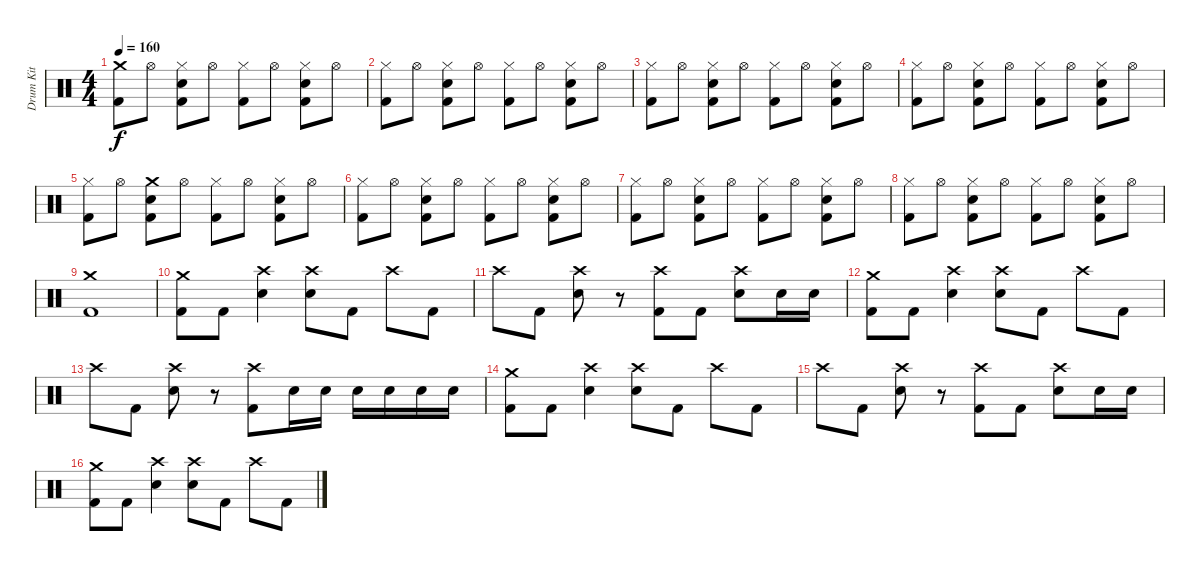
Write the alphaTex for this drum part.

\track ("Drum Kit" "Drum Kit") {instrument percussion}
\staff {score}
\articulation defaults
\ts (4 4)
\tempo 160
\clef neutral
\ks c
("Crash medium (hit)" "Kick (hit) 2").8{dy f} "Hi-Hat (open)".8 ("Hi-Hat (closed)" "Electric Snare (hit)" "Kick (hit) 2").8 "Hi-Hat (open)".8 ("Hi-Hat (closed)" "Kick (hit) 2").8 "Hi-Hat (open)".8 ("Hi-Hat (closed)" "Electric Snare (hit)" "Kick (hit) 2").8 "Hi-Hat (open)".8 |
("Hi-Hat (closed)" "Kick (hit) 2").8 "Hi-Hat (open)".8 ("Hi-Hat (closed)" "Electric Snare (hit)" "Kick (hit) 2").8 "Hi-Hat (open)".8 ("Hi-Hat (closed)" "Kick (hit) 2").8 "Hi-Hat (open)".8 ("Hi-Hat (closed)" "Electric Snare (hit)" "Kick (hit) 2").8 "Hi-Hat (open)".8 |
("Hi-Hat (closed)" "Kick (hit) 2").8 "Hi-Hat (open)".8 ("Hi-Hat (closed)" "Electric Snare (hit)" "Kick (hit) 2").8 "Hi-Hat (open)".8 ("Hi-Hat (closed)" "Kick (hit) 2").8 "Hi-Hat (open)".8 ("Hi-Hat (closed)" "Electric Snare (hit)" "Kick (hit) 2").8 "Hi-Hat (open)".8 |
("Hi-Hat (closed)" "Kick (hit) 2").8 "Hi-Hat (open)".8 ("Hi-Hat (closed)" "Electric Snare (hit)" "Kick (hit) 2").8 "Hi-Hat (open)".8 ("Hi-Hat (closed)" "Kick (hit) 2").8 "Hi-Hat (open)".8 ("Hi-Hat (closed)" "Electric Snare (hit)" "Kick (hit) 2").8 "Hi-Hat (open)".8 |
("Hi-Hat (closed)" "Kick (hit) 2").8 "Hi-Hat (open)".8 ("Crash medium (hit)" "Electric Snare (hit)" "Kick (hit) 2").8 "Hi-Hat (open)".8 ("Hi-Hat (closed)" "Kick (hit) 2").8 "Hi-Hat (open)".8 ("Hi-Hat (closed)" "Electric Snare (hit)" "Kick (hit) 2").8 "Hi-Hat (open)".8 |
("Hi-Hat (closed)" "Kick (hit) 2").8 "Hi-Hat (open)".8 ("Hi-Hat (closed)" "Electric Snare (hit)" "Kick (hit) 2").8 "Hi-Hat (open)".8 ("Hi-Hat (closed)" "Kick (hit) 2").8 "Hi-Hat (open)".8 ("Hi-Hat (closed)" "Electric Snare (hit)" "Kick (hit) 2").8 "Hi-Hat (open)".8 |
("Hi-Hat (closed)" "Kick (hit) 2").8 "Hi-Hat (open)".8 ("Hi-Hat (closed)" "Electric Snare (hit)" "Kick (hit) 2").8 "Hi-Hat (open)".8 ("Hi-Hat (closed)" "Kick (hit) 2").8 "Hi-Hat (open)".8 ("Hi-Hat (closed)" "Electric Snare (hit)" "Kick (hit) 2").8 "Hi-Hat (open)".8 |
("Hi-Hat (closed)" "Kick (hit) 2").8 "Hi-Hat (open)".8 ("Hi-Hat (closed)" "Electric Snare (hit)" "Kick (hit) 2").8 "Hi-Hat (open)".8 ("Hi-Hat (closed)" "Kick (hit) 2").8 "Hi-Hat (open)".8 ("Hi-Hat (closed)" "Electric Snare (hit)" "Kick (hit) 2").8 "Hi-Hat (open)".8 |
("Crash medium (hit)" "Kick (hit) 2").1 |
("Crash medium (hit)" "Kick (hit) 2").8 "Kick (hit) 2".8 ("Crash high (hit)" "Electric Snare (hit)").4 ("Crash high (hit)" "Electric Snare (hit)").8 "Kick (hit) 2".8 "Crash high (hit)".8 "Kick (hit) 2".8 |
"Crash high (hit)".8 "Kick (hit) 2".8 ("Crash high (hit)" "Electric Snare (hit)").8 r.8 ("Crash high (hit)" "Kick (hit) 2").8 "Kick (hit) 2".8 ("Crash high (hit)" "Electric Snare (hit)").8 "Electric Snare (hit)".16 "Electric Snare (hit)".16 |
("Crash medium (hit)" "Kick (hit) 2").8 "Kick (hit) 2".8 ("Crash high (hit)" "Electric Snare (hit)").4 ("Crash high (hit)" "Electric Snare (hit)").8 "Kick (hit) 2".8 "Crash high (hit)".8 "Kick (hit) 2".8 |
"Crash high (hit)".8 "Kick (hit) 2".8 ("Crash high (hit)" "Electric Snare (hit)").8 r.8 ("Crash high (hit)" "Kick (hit) 2").8 "Electric Snare (hit)".16 "Electric Snare (hit)".16 "Electric Snare (hit)".16 "Electric Snare (hit)".16 "Electric Snare (hit)".16 "Electric Snare (hit)".16 |
("Crash medium (hit)" "Kick (hit) 2").8 "Kick (hit) 2".8 ("Crash high (hit)" "Electric Snare (hit)").4 ("Crash high (hit)" "Electric Snare (hit)").8 "Kick (hit) 2".8 "Crash high (hit)".8 "Kick (hit) 2".8 |
"Crash high (hit)".8 "Kick (hit) 2".8 ("Crash high (hit)" "Electric Snare (hit)").8 r.8 ("Crash high (hit)" "Kick (hit) 2").8 "Kick (hit) 2".8 ("Crash high (hit)" "Electric Snare (hit)").8 "Electric Snare (hit)".16 "Electric Snare (hit)".16 |
("Crash medium (hit)" "Kick (hit) 2").8 "Kick (hit) 2".8 ("Crash high (hit)" "Electric Snare (hit)").4 ("Crash high (hit)" "Electric Snare (hit)").8 "Kick (hit) 2".8 "Crash high (hit)".8 "Kick (hit) 2".8
